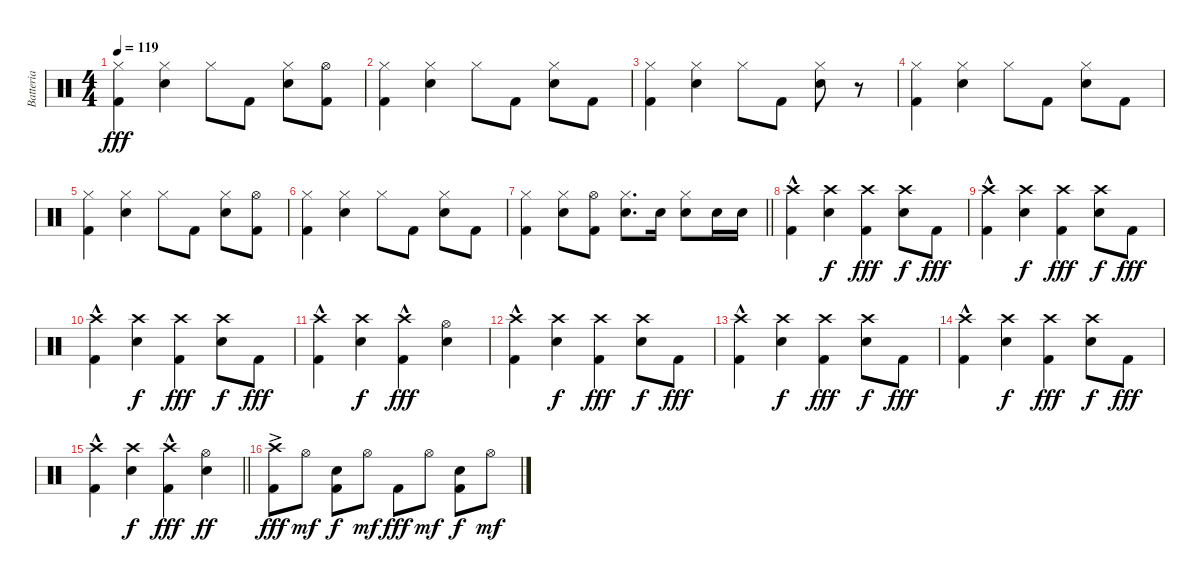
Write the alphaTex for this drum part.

\track ("Batteria" "Batteria") {instrument percussion}
\staff {score}
\articulation defaults
\ts (4 4)
\tempo 119
\clef neutral
\ks c
("Hi-Hat (closed)" "Kick (hit) 2").4{dy fff} ("Hi-Hat (closed)" "Electric Snare (hit)").4 "Hi-Hat (closed)".8 "Kick (hit) 2".8 ("Hi-Hat (closed)" "Electric Snare (hit)").8 ("Hi-Hat (open)" "Kick (hit) 2").8 |
("Hi-Hat (closed)" "Kick (hit) 2").4 ("Hi-Hat (closed)" "Electric Snare (hit)").4 "Hi-Hat (closed)".8 "Kick (hit) 2".8 ("Hi-Hat (closed)" "Electric Snare (hit)").8 "Kick (hit) 2".8 |
("Hi-Hat (closed)" "Kick (hit) 2").4 ("Hi-Hat (closed)" "Electric Snare (hit)").4 "Hi-Hat (closed)".8 "Kick (hit) 2".8 ("Hi-Hat (closed)" "Electric Snare (hit)").8 r.8 |
("Hi-Hat (closed)" "Kick (hit) 2").4 ("Hi-Hat (closed)" "Electric Snare (hit)").4 "Hi-Hat (closed)".8 "Kick (hit) 2".8 ("Hi-Hat (closed)" "Electric Snare (hit)").8 "Kick (hit) 2".8 |
("Hi-Hat (closed)" "Kick (hit) 2").4 ("Hi-Hat (closed)" "Electric Snare (hit)").4 "Hi-Hat (closed)".8 "Kick (hit) 2".8 ("Hi-Hat (closed)" "Electric Snare (hit)").8 ("Hi-Hat (open)" "Kick (hit) 2").8 |
("Hi-Hat (closed)" "Kick (hit) 2").4 ("Hi-Hat (closed)" "Electric Snare (hit)").4 "Hi-Hat (closed)".8 "Kick (hit) 2".8 ("Hi-Hat (closed)" "Electric Snare (hit)").8 "Kick (hit) 2".8 |
\barLineRight lightlight
("Hi-Hat (closed)" "Kick (hit) 2").4 ("Hi-Hat (closed)" "Electric Snare (hit)").8 ("Hi-Hat (open)" "Kick (hit) 2").8 ("Hi-Hat (closed)" "Electric Snare (hit)").8{d} "Electric Snare (hit)".16 ("Hi-Hat (closed)" "Electric Snare (hit)").8 "Electric Snare (hit)".16 "Electric Snare (hit)".16 |
("Crash high (hit)"{hac} "Kick (hit) 2").4 ("Crash high (hit)" "Electric Snare (hit)").4{dy f} ("Crash high (hit)" "Kick (hit) 2").4{dy fff} ("Crash high (hit)" "Electric Snare (hit)").8{dy f} "Kick (hit) 2".8{dy fff} |
("Crash high (hit)"{hac} "Kick (hit) 2").4 ("Crash high (hit)" "Electric Snare (hit)").4{dy f} ("Crash high (hit)" "Kick (hit) 2").4{dy fff} ("Crash high (hit)" "Electric Snare (hit)").8{dy f} "Kick (hit) 2".8{dy fff} |
("Crash high (hit)"{hac} "Kick (hit) 2").4 ("Crash high (hit)" "Electric Snare (hit)").4{dy f} ("Crash high (hit)" "Kick (hit) 2").4{dy fff} ("Crash high (hit)" "Electric Snare (hit)").8{dy f} "Kick (hit) 2".8{dy fff} |
("Crash high (hit)"{hac} "Kick (hit) 2").4 ("Crash high (hit)" "Electric Snare (hit)").4{dy f} ("Crash high (hit)"{hac} "Kick (hit) 2").4{dy fff} ("Hi-Hat (open)" "Electric Snare (hit)").4 |
("Crash high (hit)"{hac} "Kick (hit) 2").4 ("Crash high (hit)" "Electric Snare (hit)").4{dy f} ("Crash high (hit)" "Kick (hit) 2").4{dy fff} ("Crash high (hit)" "Electric Snare (hit)").8{dy f} "Kick (hit) 2".8{dy fff} |
("Crash high (hit)"{hac} "Kick (hit) 2").4 ("Crash high (hit)" "Electric Snare (hit)").4{dy f} ("Crash high (hit)" "Kick (hit) 2").4{dy fff} ("Crash high (hit)" "Electric Snare (hit)").8{dy f} "Kick (hit) 2".8{dy fff} |
("Crash high (hit)"{hac} "Kick (hit) 2").4 ("Crash high (hit)" "Electric Snare (hit)").4{dy f} ("Crash high (hit)" "Kick (hit) 2").4{dy fff} ("Crash high (hit)" "Electric Snare (hit)").8{dy f} "Kick (hit) 2".8{dy fff} |
\barLineRight lightlight
("Crash high (hit)"{hac} "Kick (hit) 2").4 ("Crash high (hit)" "Electric Snare (hit)").4{dy f} ("Crash high (hit)"{hac} "Kick (hit) 2").4{dy fff} ("Hi-Hat (open)" "Electric Snare (hit)").4{dy ff} |
("Crash high (hit)"{ac} "Kick (hit) 2").8{dy fff} "Hi-Hat (open)".8{dy mf} ("Kick (hit) 2" "Electric Snare (hit)").8{dy f} "Hi-Hat (open)".8{dy mf} "Kick (hit) 2".8{dy fff} "Hi-Hat (open)".8{dy mf} ("Kick (hit) 2" "Electric Snare (hit)").8{dy f} "Hi-Hat (open)".8{dy mf}
